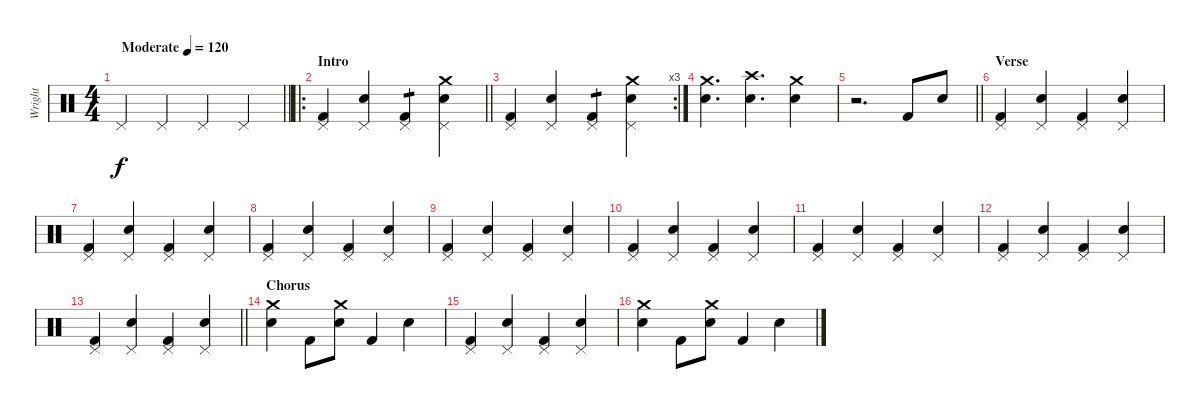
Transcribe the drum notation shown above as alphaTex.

\track ("Wright" "Wright") {instrument percussion}
\staff {score}
\articulation defaults
\ts (4 4)
\section ("" "")
\tempo (120 "Moderate")
\clef neutral
\barLineRight lightlight
\ks c "Pedal Hi-Hat (hit)".4{dy f} "Pedal Hi-Hat (hit)".4 "Pedal Hi-Hat (hit)".4 "Pedal Hi-Hat (hit)".4
|
\ro
\section ("" "Intro")
\barLineRight lightlight
("Kick (hit) 2" "Pedal Hi-Hat (hit)").4 ("Snare (hit) 2" "Pedal Hi-Hat (hit)").4 ("Kick (hit) 2" "Pedal Hi-Hat (hit)").4{tp 1} ("Snare (hit) 2" "Pedal Hi-Hat (hit)" "Crash medium (hit)").4 |
\rc 3
("Kick (hit) 2" "Pedal Hi-Hat (hit)").4 ("Snare (hit) 2" "Pedal Hi-Hat (hit)").4 ("Kick (hit) 2" "Pedal Hi-Hat (hit)").4{tp 1} ("Snare (hit) 2" "Pedal Hi-Hat (hit)" "Crash medium (hit)").4 |
("Snare (hit) 2" "Crash medium (hit)").4{d} ("Snare (hit) 2" "Crash high (hit)").4{d} ("Snare (hit) 2" "Crash medium (hit)").4 |
\barLineRight lightlight
r.2{d} "Kick (hit) 2".8 "Snare (hit) 2".8 |
\section ("" "Verse")
("Kick (hit) 2" "Pedal Hi-Hat (hit)").4 ("Snare (hit) 2" "Pedal Hi-Hat (hit)").4 ("Kick (hit) 2" "Pedal Hi-Hat (hit)").4 ("Snare (hit) 2" "Pedal Hi-Hat (hit)").4 |
("Kick (hit) 2" "Pedal Hi-Hat (hit)").4 ("Snare (hit) 2" "Pedal Hi-Hat (hit)").4 ("Kick (hit) 2" "Pedal Hi-Hat (hit)").4 ("Snare (hit) 2" "Pedal Hi-Hat (hit)").4 |
("Kick (hit) 2" "Pedal Hi-Hat (hit)").4 ("Snare (hit) 2" "Pedal Hi-Hat (hit)").4 ("Kick (hit) 2" "Pedal Hi-Hat (hit)").4 ("Snare (hit) 2" "Pedal Hi-Hat (hit)").4 |
("Kick (hit) 2" "Pedal Hi-Hat (hit)").4 ("Snare (hit) 2" "Pedal Hi-Hat (hit)").4 ("Kick (hit) 2" "Pedal Hi-Hat (hit)").4 ("Snare (hit) 2" "Pedal Hi-Hat (hit)").4 |
("Kick (hit) 2" "Pedal Hi-Hat (hit)").4 ("Snare (hit) 2" "Pedal Hi-Hat (hit)").4 ("Kick (hit) 2" "Pedal Hi-Hat (hit)").4 ("Snare (hit) 2" "Pedal Hi-Hat (hit)").4 |
("Kick (hit) 2" "Pedal Hi-Hat (hit)").4 ("Snare (hit) 2" "Pedal Hi-Hat (hit)").4 ("Kick (hit) 2" "Pedal Hi-Hat (hit)").4 ("Snare (hit) 2" "Pedal Hi-Hat (hit)").4 |
("Kick (hit) 2" "Pedal Hi-Hat (hit)").4 ("Snare (hit) 2" "Pedal Hi-Hat (hit)").4 ("Kick (hit) 2" "Pedal Hi-Hat (hit)").4 ("Snare (hit) 2" "Pedal Hi-Hat (hit)").4 |
\barLineRight lightlight
("Kick (hit) 2" "Pedal Hi-Hat (hit)").4 ("Snare (hit) 2" "Pedal Hi-Hat (hit)").4 ("Kick (hit) 2" "Pedal Hi-Hat (hit)").4 ("Snare (hit) 2" "Pedal Hi-Hat (hit)").4 |
\section ("" "Chorus")
("Snare (hit) 2" "Crash medium (hit)").4 "Kick (hit) 2".8 ("Snare (hit) 2" "Crash medium (hit)").8 "Kick (hit) 2".4 "Snare (hit) 2".4 |
("Kick (hit) 2" "Pedal Hi-Hat (hit)").4 ("Snare (hit) 2" "Pedal Hi-Hat (hit)").4 ("Kick (hit) 2" "Pedal Hi-Hat (hit)").4 ("Snare (hit) 2" "Pedal Hi-Hat (hit)").4 |
("Snare (hit) 2" "Crash medium (hit)").4 "Kick (hit) 2".8 ("Snare (hit) 2" "Crash medium (hit)").8 "Kick (hit) 2".4 "Snare (hit) 2".4
